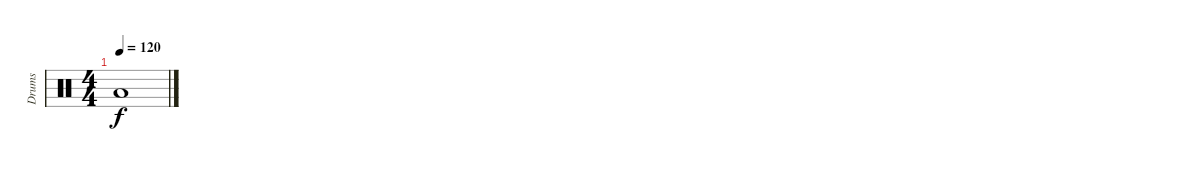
\track ("Drums" "Drums") {instrument percussion}
\staff {score}
\articulation defaults
\ts (4 4)
\tempo 120
\clef neutral
\ks c "Low Floor Tom (hit)".1{dy f}
